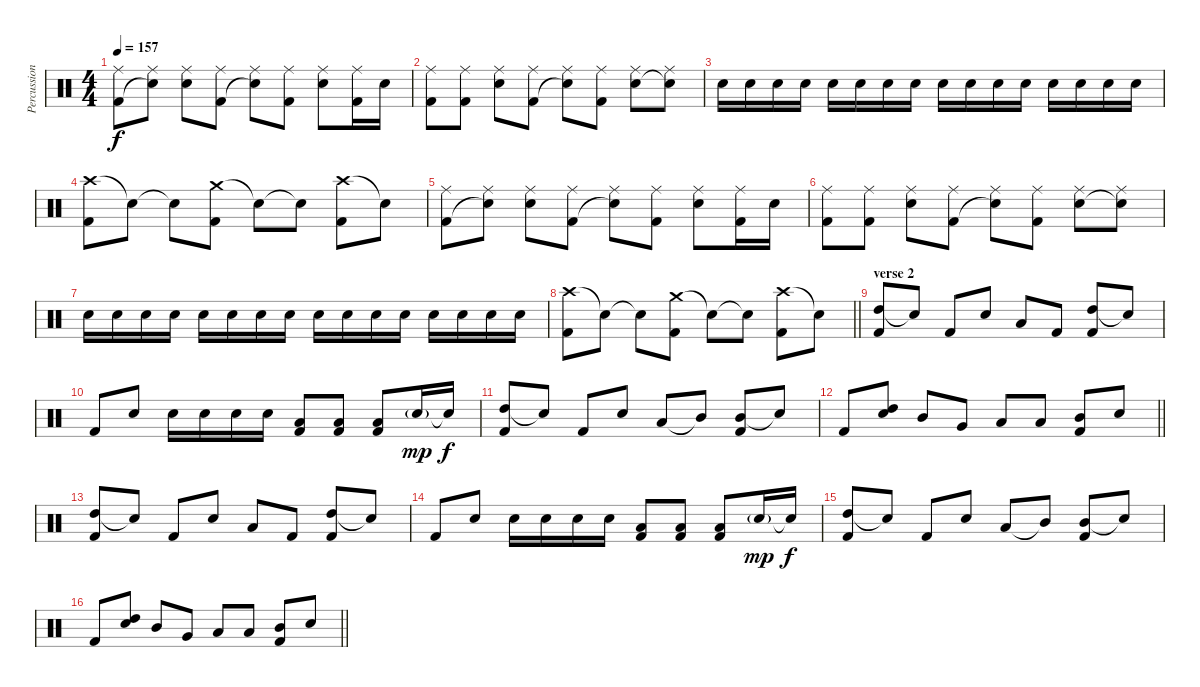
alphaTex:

\track ("Percussion" "Percussion") {instrument percussion}
\staff {score}
\articulation defaults
\ts (4 4)
\tempo 157
\clef neutral
\ks c
("Ride (middle)" "Kick (hit) 2").8{dy f} ("Ride (middle)" "Snare (hit)"{t}).8 ("Ride (middle)" "Electric Snare (hit)").8 ("Ride (middle)" "Kick (hit) 2").8 ("Ride (middle)" "Snare (hit)"{t}).8 ("Ride (middle)" "Kick (hit) 2").8 ("Ride (middle)" "Electric Snare (hit)").8 ("Ride (middle)" "Kick (hit) 2").16 "Electric Snare (hit)".16 |
("Ride (middle)" "Kick (hit) 2").8 ("Ride (middle)" "Kick (hit) 2").8 ("Ride (middle)" "Electric Snare (hit)").8 ("Ride (middle)" "Kick (hit) 2").8 ("Ride (middle)" "Snare (hit)"{t}).8 ("Ride (middle)" "Kick (hit) 2").8 ("Ride (middle)" "Electric Snare (hit)").8 ("Ride (middle)" "Snare (hit)"{t}).8 |
"Electric Snare (hit)".16 "Electric Snare (hit)".16 "Electric Snare (hit)".16 "Electric Snare (hit)".16 "Electric Snare (hit)".16 "Electric Snare (hit)".16 "Electric Snare (hit)".16 "Electric Snare (hit)".16 "Electric Snare (hit)".16 "Electric Snare (hit)".16 "Electric Snare (hit)".16 "Electric Snare (hit)".16 "Electric Snare (hit)".16 "Electric Snare (hit)".16 "Electric Snare (hit)".16 "Electric Snare (hit)".16 |
("Crash high (hit)" "Kick (hit) 2").8 "Snare (hit)"{t}.8 "Snare (hit)"{t}.8 ("Crash medium (hit)" "Kick (hit) 2").8 "Snare (hit)"{t}.8 "Snare (hit)"{t}.8 ("Crash high (hit)" "Kick (hit) 2").8 "Snare (hit)"{t}.8 |
("Ride (middle)" "Kick (hit) 2").8 ("Ride (middle)" "Snare (hit)"{t}).8 ("Ride (middle)" "Electric Snare (hit)").8 ("Ride (middle)" "Kick (hit) 2").8 ("Ride (middle)" "Snare (hit)"{t}).8 ("Ride (middle)" "Kick (hit) 2").8 ("Ride (middle)" "Electric Snare (hit)").8 ("Ride (middle)" "Kick (hit) 2").16 "Electric Snare (hit)".16 |
("Ride (middle)" "Kick (hit) 2").8 ("Ride (middle)" "Kick (hit) 2").8 ("Ride (middle)" "Electric Snare (hit)").8 ("Ride (middle)" "Kick (hit) 2").8 ("Ride (middle)" "Snare (hit)"{t}).8 ("Ride (middle)" "Kick (hit) 2").8 ("Ride (middle)" "Electric Snare (hit)").8 ("Ride (middle)" "Snare (hit)"{t}).8 |
"Electric Snare (hit)".16 "Electric Snare (hit)".16 "Electric Snare (hit)".16 "Electric Snare (hit)".16 "Electric Snare (hit)".16 "Electric Snare (hit)".16 "Electric Snare (hit)".16 "Electric Snare (hit)".16 "Electric Snare (hit)".16 "Electric Snare (hit)".16 "Electric Snare (hit)".16 "Electric Snare (hit)".16 "Electric Snare (hit)".16 "Electric Snare (hit)".16 "Electric Snare (hit)".16 "Electric Snare (hit)".16 |
\barLineRight lightlight
("Crash high (hit)" "Kick (hit) 2").8 "Snare (hit)"{t}.8 "Snare (hit)"{t}.8 ("Crash medium (hit)" "Kick (hit) 2").8 "Snare (hit)"{t}.8 "Snare (hit)"{t}.8 ("Crash high (hit)" "Kick (hit) 2").8 "Snare (hit)"{t}.8 |
\section ("" "verse 2")
("High Tom (hit)" "Kick (hit) 2").8 "Snare (hit)"{t}.8 "Kick (hit) 2".8 "Electric Snare (hit)".8 "Low Tom (hit)".8 "Kick (hit) 2".8 ("High Tom (hit)" "Kick (hit) 2").8 "Snare (hit)"{t}.8 |
"Kick (hit) 2".8 "Electric Snare (hit)".8 "Electric Snare (hit)".16 "Electric Snare (hit)".16 "Electric Snare (hit)".16 "Electric Snare (hit)".16 ("Low Tom (hit)" "Kick (hit) 2").8 ("Low Tom (hit)" "Kick (hit) 2").8 ("Low Tom (hit)" "Kick (hit) 2").8 "Electric Snare (hit)"{g}.16{dy mp} "Snare (hit)"{t}.16{dy f} |
("High Tom (hit)" "Kick (hit) 2").8 "Snare (hit)"{t}.8 "Kick (hit) 2".8 "Electric Snare (hit)".8 "Low Tom (hit)".8 "Mid Tom (hit)"{t}.8 ("Mid Tom (hit)" "Kick (hit) 2").8 "Snare (hit)"{t}.8 |
\barLineRight lightlight "Kick (hit) 2".8
("High Tom (hit)" "Electric Snare (hit)").8 "Mid Tom (hit)".8 "Very Low Tom (hit)".8 "Low Tom (hit)".8 "Low Floor Tom (hit)".8 ("Mid Tom (hit)" "Kick (hit) 2").8 "Electric Snare (hit)".8 |
("High Tom (hit)" "Kick (hit) 2").8 "Snare (hit)"{t}.8 "Kick (hit) 2".8 "Electric Snare (hit)".8 "Low Tom (hit)".8 "Kick (hit) 2".8 ("High Tom (hit)" "Kick (hit) 2").8 "Snare (hit)"{t}.8 |
"Kick (hit) 2".8 "Electric Snare (hit)".8 "Electric Snare (hit)".16 "Electric Snare (hit)".16 "Electric Snare (hit)".16 "Electric Snare (hit)".16 ("Low Tom (hit)" "Kick (hit) 2").8 ("Low Tom (hit)" "Kick (hit) 2").8 ("Low Tom (hit)" "Kick (hit) 2").8 "Electric Snare (hit)"{g}.16{dy mp} "Snare (hit)"{t}.16{dy f} |
("High Tom (hit)" "Kick (hit) 2").8 "Snare (hit)"{t}.8 "Kick (hit) 2".8 "Electric Snare (hit)".8 "Low Tom (hit)".8 "Mid Tom (hit)"{t}.8 ("Mid Tom (hit)" "Kick (hit) 2").8 "Snare (hit)"{t}.8 |
\barLineRight lightlight "Kick (hit) 2".8
("High Tom (hit)" "Electric Snare (hit)").8 "Mid Tom (hit)".8 "Very Low Tom (hit)".8 "Low Tom (hit)".8 "Low Floor Tom (hit)".8 ("Mid Tom (hit)" "Kick (hit) 2").8 "Electric Snare (hit)".8
